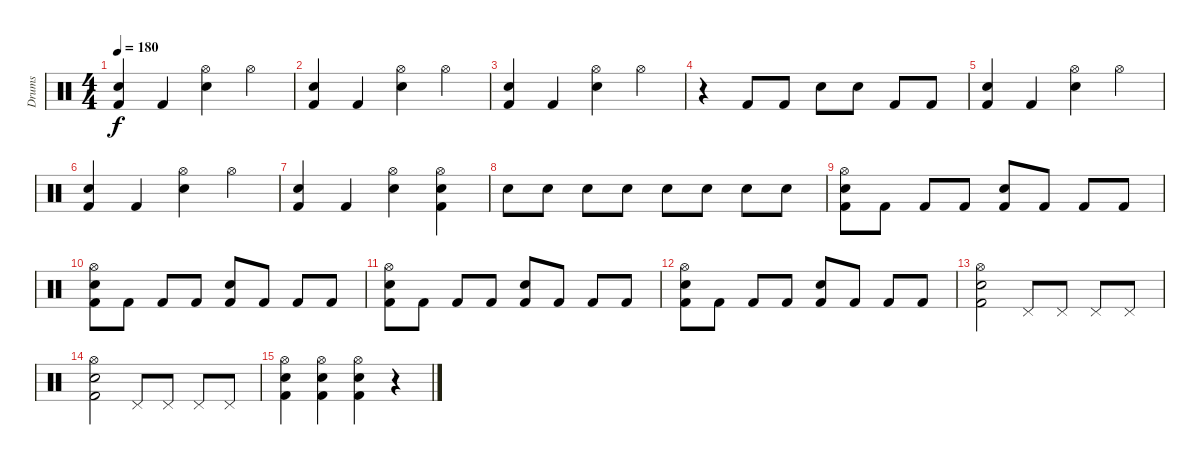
\track ("Drums" "Drums") {instrument percussion}
\staff {score}
\articulation defaults
\ts (4 4)
\tempo 180
\clef neutral
\ks c
("Kick (hit) 2" "Snare (hit) 2").4{dy f} "Kick (hit) 2".4 ("Snare (hit) 2" "Hi-Hat (open)").4 "Hi-Hat (open)".4 |
("Kick (hit) 2" "Snare (hit) 2").4 "Kick (hit) 2".4 ("Snare (hit) 2" "Hi-Hat (open)").4 "Hi-Hat (open)".4 |
("Kick (hit) 2" "Snare (hit) 2").4 "Kick (hit) 2".4 ("Snare (hit) 2" "Hi-Hat (open)").4 "Hi-Hat (open)".4 |
r.4 "Kick (hit) 2".8 "Kick (hit) 2".8 "Snare (hit) 2".8 "Snare (hit) 2".8 "Kick (hit) 2".8 "Kick (hit) 2".8 |
("Kick (hit) 2" "Snare (hit) 2").4 "Kick (hit) 2".4 ("Snare (hit) 2" "Hi-Hat (open)").4 "Hi-Hat (open)".4 |
("Kick (hit) 2" "Snare (hit) 2").4 "Kick (hit) 2".4 ("Snare (hit) 2" "Hi-Hat (open)").4 "Hi-Hat (open)".4 |
("Kick (hit) 2" "Snare (hit) 2").4 "Kick (hit) 2".4 ("Snare (hit) 2" "Hi-Hat (open)").4 ("Kick (hit) 2" "Snare (hit) 2" "Hi-Hat (open)").4 |
"Snare (hit) 2".8 "Snare (hit) 2".8 "Snare (hit) 2".8 "Snare (hit) 2".8 "Snare (hit) 2".8 "Snare (hit) 2".8 "Snare (hit) 2".8 "Snare (hit) 2".8 |
("Kick (hit) 2" "Snare (hit) 2" "Hi-Hat (open)").8 "Kick (hit) 2".8 "Kick (hit) 2".8 "Kick (hit) 2".8 ("Kick (hit) 2" "Snare (hit) 2").8 "Kick (hit) 2".8 "Kick (hit) 2".8 "Kick (hit) 2".8 |
("Kick (hit) 2" "Snare (hit) 2" "Hi-Hat (open)").8 "Kick (hit) 2".8 "Kick (hit) 2".8 "Kick (hit) 2".8 ("Kick (hit) 2" "Snare (hit) 2").8 "Kick (hit) 2".8 "Kick (hit) 2".8 "Kick (hit) 2".8 |
("Kick (hit) 2" "Snare (hit) 2" "Hi-Hat (open)").8 "Kick (hit) 2".8 "Kick (hit) 2".8 "Kick (hit) 2".8 ("Kick (hit) 2" "Snare (hit) 2").8 "Kick (hit) 2".8 "Kick (hit) 2".8 "Kick (hit) 2".8 |
("Kick (hit) 2" "Snare (hit) 2" "Hi-Hat (open)").8 "Kick (hit) 2".8 "Kick (hit) 2".8 "Kick (hit) 2".8 ("Kick (hit) 2" "Snare (hit) 2").8 "Kick (hit) 2".8 "Kick (hit) 2".8 "Kick (hit) 2".8 |
("Kick (hit) 2" "Snare (hit) 2" "Hi-Hat (open)").2 "Pedal Hi-Hat (hit)".8 "Pedal Hi-Hat (hit)".8 "Pedal Hi-Hat (hit)".8 "Pedal Hi-Hat (hit)".8 |
("Kick (hit) 2" "Snare (hit) 2" "Hi-Hat (open)").2 "Pedal Hi-Hat (hit)".8 "Pedal Hi-Hat (hit)".8 "Pedal Hi-Hat (hit)".8 "Pedal Hi-Hat (hit)".8 |
("Kick (hit) 2" "Snare (hit) 2" "Hi-Hat (open)").4 ("Kick (hit) 2" "Snare (hit) 2" "Hi-Hat (open)").4 ("Kick (hit) 2" "Snare (hit) 2" "Hi-Hat (open)").4 r.4
